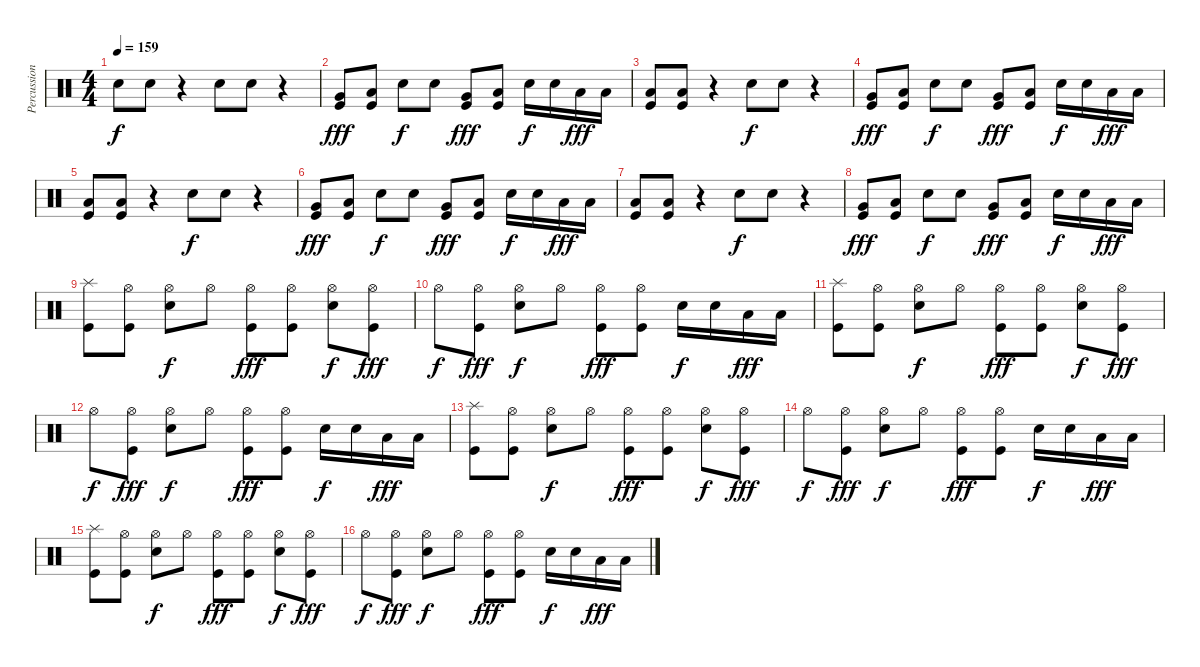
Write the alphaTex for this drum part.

\track ("Percussion" "Percussion") {instrument percussion}
\staff {score}
\articulation defaults
\ts (4 4)
\tempo 159
\clef neutral
\ks c "Snare (hit) 2".8{dy f} "Snare (hit) 2".8
r.4 "Snare (hit) 2".8 "Snare (hit) 2".8 r.4 |
("Very Low Tom (hit)" "Kick (hit)").8{dy fff} ("Low Tom (hit)" "Kick (hit)").8 "Snare (hit) 2".8{dy f} "Snare (hit) 2".8 ("Very Low Tom (hit)" "Kick (hit)").8{dy fff} ("Low Tom (hit)" "Kick (hit)").8 "Snare (hit) 2".16{dy f} "Snare (hit) 2".16 "Low Tom (hit)".16{dy fff} "Low Tom (hit)".16 |
("Low Tom (hit)" "Kick (hit)").8 ("Low Tom (hit)" "Kick (hit)").8 r.4 "Snare (hit) 2".8{dy f} "Snare (hit) 2".8 r.4 |
("Very Low Tom (hit)" "Kick (hit)").8{dy fff} ("Low Tom (hit)" "Kick (hit)").8 "Snare (hit) 2".8{dy f} "Snare (hit) 2".8 ("Very Low Tom (hit)" "Kick (hit)").8{dy fff} ("Low Tom (hit)" "Kick (hit)").8 "Snare (hit) 2".16{dy f} "Snare (hit) 2".16 "Low Tom (hit)".16{dy fff} "Low Tom (hit)".16 |
("Low Tom (hit)" "Kick (hit)").8 ("Low Tom (hit)" "Kick (hit)").8 r.4 "Snare (hit) 2".8{dy f} "Snare (hit) 2".8 r.4 |
("Very Low Tom (hit)" "Kick (hit)").8{dy fff} ("Low Tom (hit)" "Kick (hit)").8 "Snare (hit) 2".8{dy f} "Snare (hit) 2".8 ("Very Low Tom (hit)" "Kick (hit)").8{dy fff} ("Low Tom (hit)" "Kick (hit)").8 "Snare (hit) 2".16{dy f} "Snare (hit) 2".16 "Low Tom (hit)".16{dy fff} "Low Tom (hit)".16 |
("Low Tom (hit)" "Kick (hit)").8 ("Low Tom (hit)" "Kick (hit)").8 r.4 "Snare (hit) 2".8{dy f} "Snare (hit) 2".8 r.4 |
("Very Low Tom (hit)" "Kick (hit)").8{dy fff} ("Low Tom (hit)" "Kick (hit)").8 "Snare (hit) 2".8{dy f} "Snare (hit) 2".8 ("Very Low Tom (hit)" "Kick (hit)").8{dy fff} ("Low Tom (hit)" "Kick (hit)").8 "Snare (hit) 2".16{dy f} "Snare (hit) 2".16 "Low Tom (hit)".16{dy fff} "Low Tom (hit)".16 |
("Splash (hit)" "Kick (hit)").8 ("Hi-Hat (open)" "Kick (hit)").8 ("Hi-Hat (open)" "Snare (hit) 2").8{dy f} "Hi-Hat (open)".8 ("Hi-Hat (open)" "Kick (hit)").8{dy fff} ("Hi-Hat (open)" "Kick (hit)").8 ("Hi-Hat (open)" "Snare (hit) 2").8{dy f} ("Hi-Hat (open)" "Kick (hit)").8{dy fff} |
"Hi-Hat (open)".8{dy f} ("Hi-Hat (open)" "Kick (hit)").8{dy fff} ("Hi-Hat (open)" "Snare (hit) 2").8{dy f} "Hi-Hat (open)".8 ("Hi-Hat (open)" "Kick (hit)").8{dy fff} ("Hi-Hat (open)" "Kick (hit)").8 "Snare (hit) 2".16{dy f} "Snare (hit) 2".16 "Low Tom (hit)".16{dy fff} "Low Tom (hit)".16 |
("Splash (hit)" "Kick (hit)").8 ("Hi-Hat (open)" "Kick (hit)").8 ("Hi-Hat (open)" "Snare (hit) 2").8{dy f} "Hi-Hat (open)".8 ("Hi-Hat (open)" "Kick (hit)").8{dy fff} ("Hi-Hat (open)" "Kick (hit)").8 ("Hi-Hat (open)" "Snare (hit) 2").8{dy f} ("Hi-Hat (open)" "Kick (hit)").8{dy fff} |
"Hi-Hat (open)".8{dy f} ("Hi-Hat (open)" "Kick (hit)").8{dy fff} ("Hi-Hat (open)" "Snare (hit) 2").8{dy f} "Hi-Hat (open)".8 ("Hi-Hat (open)" "Kick (hit)").8{dy fff} ("Hi-Hat (open)" "Kick (hit)").8 "Snare (hit) 2".16{dy f} "Snare (hit) 2".16 "Low Tom (hit)".16{dy fff} "Low Tom (hit)".16 |
("Splash (hit)" "Kick (hit)").8 ("Hi-Hat (open)" "Kick (hit)").8 ("Hi-Hat (open)" "Snare (hit) 2").8{dy f} "Hi-Hat (open)".8 ("Hi-Hat (open)" "Kick (hit)").8{dy fff} ("Hi-Hat (open)" "Kick (hit)").8 ("Hi-Hat (open)" "Snare (hit) 2").8{dy f} ("Hi-Hat (open)" "Kick (hit)").8{dy fff} |
"Hi-Hat (open)".8{dy f} ("Hi-Hat (open)" "Kick (hit)").8{dy fff} ("Hi-Hat (open)" "Snare (hit) 2").8{dy f} "Hi-Hat (open)".8 ("Hi-Hat (open)" "Kick (hit)").8{dy fff} ("Hi-Hat (open)" "Kick (hit)").8 "Snare (hit) 2".16{dy f} "Snare (hit) 2".16 "Low Tom (hit)".16{dy fff} "Low Tom (hit)".16 |
("Splash (hit)" "Kick (hit)").8 ("Hi-Hat (open)" "Kick (hit)").8 ("Hi-Hat (open)" "Snare (hit) 2").8{dy f} "Hi-Hat (open)".8 ("Hi-Hat (open)" "Kick (hit)").8{dy fff} ("Hi-Hat (open)" "Kick (hit)").8 ("Hi-Hat (open)" "Snare (hit) 2").8{dy f} ("Hi-Hat (open)" "Kick (hit)").8{dy fff} |
"Hi-Hat (open)".8{dy f} ("Hi-Hat (open)" "Kick (hit)").8{dy fff} ("Hi-Hat (open)" "Snare (hit) 2").8{dy f} "Hi-Hat (open)".8 ("Hi-Hat (open)" "Kick (hit)").8{dy fff} ("Hi-Hat (open)" "Kick (hit)").8 "Snare (hit) 2".16{dy f} "Snare (hit) 2".16 "Low Tom (hit)".16{dy fff} "Low Tom (hit)".16
